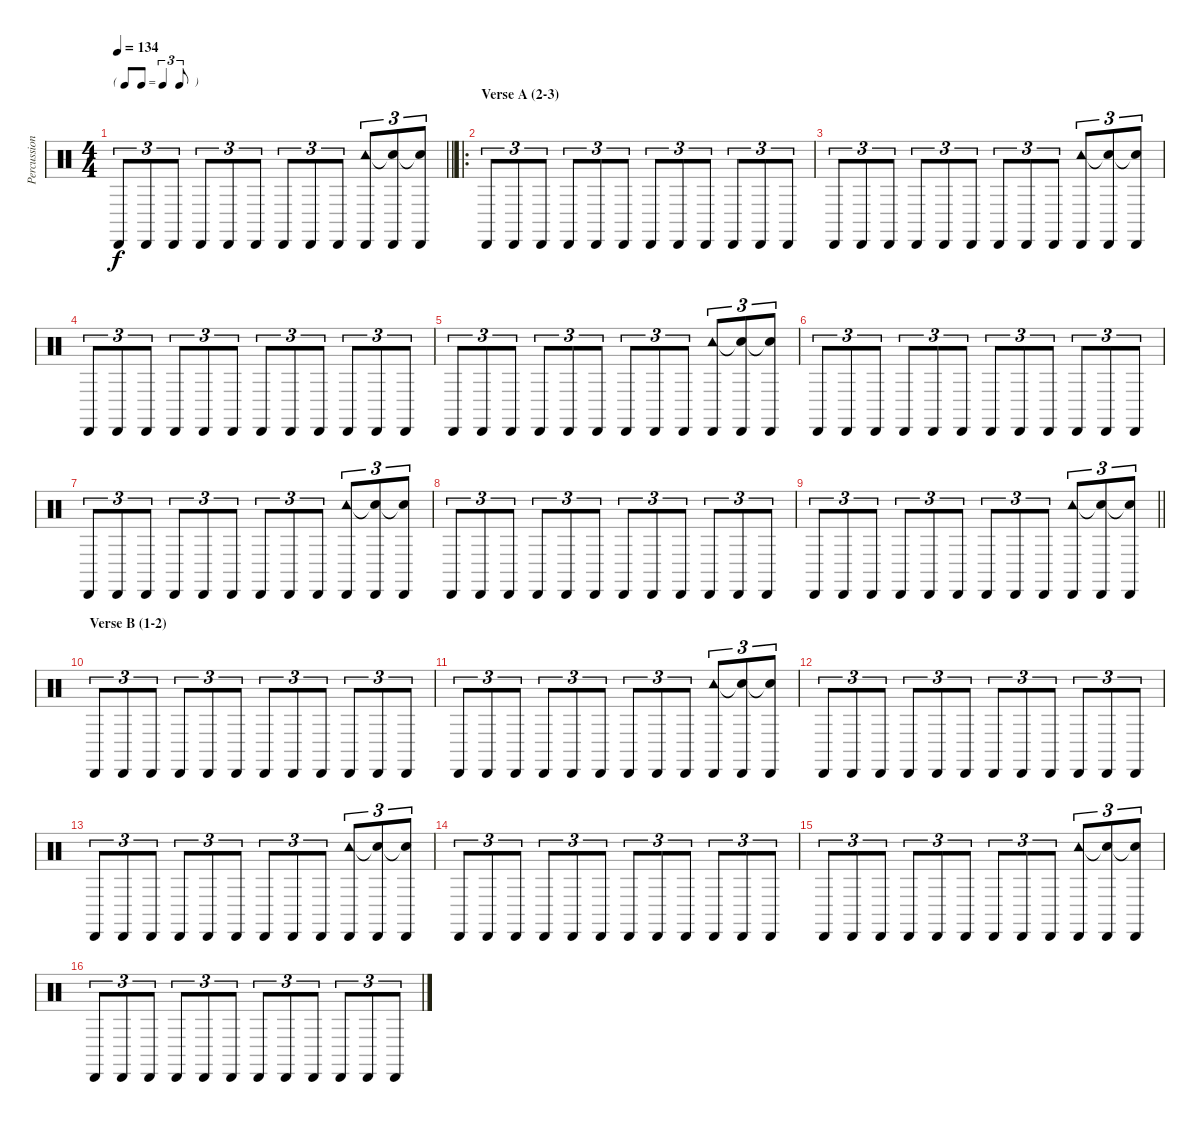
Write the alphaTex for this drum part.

\track ("Percussion" "Percussion") {instrument percussion}
\staff {score}
\articulation defaults
\ts (4 4)
\tf triplet8th
\tempo 134
\clef neutral
\barLineRight lightlight
\ks c "Cabasa (hit)".8{tu (3 2) dy f} "Cabasa (hit)".8{tu (3 2)} "Cabasa (hit)".8{tu (3 2)} "Cabasa (hit)".8{tu (3 2)} "Cabasa (hit)".8{tu (3 2)} "Cabasa (hit)".8{tu (3 2)} "Cabasa (hit)".8{tu (3 2)} "Cabasa (hit)".8{tu (3 2)} "Cabasa (hit)".8{tu (3 2)}
("Cabasa (hit)" "Tambourine (hit)").8{tu (3 2)} ("Cabasa (hit)" "Snare (hit)"{t}).8{tu (3 2)} ("Cabasa (hit)" "Snare (hit)"{t}).8{tu (3 2)} |
\ro
\section ("" "Verse A (2-3)")
"Cabasa (hit)".8{tu (3 2)} "Cabasa (hit)".8{tu (3 2)} "Cabasa (hit)".8{tu (3 2)} "Cabasa (hit)".8{tu (3 2)} "Cabasa (hit)".8{tu (3 2)} "Cabasa (hit)".8{tu (3 2)} "Cabasa (hit)".8{tu (3 2)} "Cabasa (hit)".8{tu (3 2)} "Cabasa (hit)".8{tu (3 2)} "Cabasa (hit)".8{tu (3 2)} "Cabasa (hit)".8{tu (3 2)} "Cabasa (hit)".8{tu (3 2)} |
"Cabasa (hit)".8{tu (3 2)} "Cabasa (hit)".8{tu (3 2)} "Cabasa (hit)".8{tu (3 2)} "Cabasa (hit)".8{tu (3 2)} "Cabasa (hit)".8{tu (3 2)} "Cabasa (hit)".8{tu (3 2)} "Cabasa (hit)".8{tu (3 2)} "Cabasa (hit)".8{tu (3 2)} "Cabasa (hit)".8{tu (3 2)} ("Cabasa (hit)" "Tambourine (hit)").8{tu (3 2)} ("Cabasa (hit)" "Snare (hit)"{t}).8{tu (3 2)} ("Cabasa (hit)" "Snare (hit)"{t}).8{tu (3 2)} |
"Cabasa (hit)".8{tu (3 2)} "Cabasa (hit)".8{tu (3 2)} "Cabasa (hit)".8{tu (3 2)} "Cabasa (hit)".8{tu (3 2)} "Cabasa (hit)".8{tu (3 2)} "Cabasa (hit)".8{tu (3 2)} "Cabasa (hit)".8{tu (3 2)} "Cabasa (hit)".8{tu (3 2)} "Cabasa (hit)".8{tu (3 2)} "Cabasa (hit)".8{tu (3 2)} "Cabasa (hit)".8{tu (3 2)} "Cabasa (hit)".8{tu (3 2)} |
"Cabasa (hit)".8{tu (3 2)} "Cabasa (hit)".8{tu (3 2)} "Cabasa (hit)".8{tu (3 2)} "Cabasa (hit)".8{tu (3 2)} "Cabasa (hit)".8{tu (3 2)} "Cabasa (hit)".8{tu (3 2)} "Cabasa (hit)".8{tu (3 2)} "Cabasa (hit)".8{tu (3 2)} "Cabasa (hit)".8{tu (3 2)} ("Cabasa (hit)" "Tambourine (hit)").8{tu (3 2)} ("Cabasa (hit)" "Snare (hit)"{t}).8{tu (3 2)} ("Cabasa (hit)" "Snare (hit)"{t}).8{tu (3 2)} |
"Cabasa (hit)".8{tu (3 2)} "Cabasa (hit)".8{tu (3 2)} "Cabasa (hit)".8{tu (3 2)} "Cabasa (hit)".8{tu (3 2)} "Cabasa (hit)".8{tu (3 2)} "Cabasa (hit)".8{tu (3 2)} "Cabasa (hit)".8{tu (3 2)} "Cabasa (hit)".8{tu (3 2)} "Cabasa (hit)".8{tu (3 2)} "Cabasa (hit)".8{tu (3 2)} "Cabasa (hit)".8{tu (3 2)} "Cabasa (hit)".8{tu (3 2)} |
"Cabasa (hit)".8{tu (3 2)} "Cabasa (hit)".8{tu (3 2)} "Cabasa (hit)".8{tu (3 2)} "Cabasa (hit)".8{tu (3 2)} "Cabasa (hit)".8{tu (3 2)} "Cabasa (hit)".8{tu (3 2)} "Cabasa (hit)".8{tu (3 2)} "Cabasa (hit)".8{tu (3 2)} "Cabasa (hit)".8{tu (3 2)} ("Cabasa (hit)" "Tambourine (hit)").8{tu (3 2)} ("Cabasa (hit)" "Snare (hit)"{t}).8{tu (3 2)} ("Cabasa (hit)" "Snare (hit)"{t}).8{tu (3 2)} |
"Cabasa (hit)".8{tu (3 2)} "Cabasa (hit)".8{tu (3 2)} "Cabasa (hit)".8{tu (3 2)} "Cabasa (hit)".8{tu (3 2)} "Cabasa (hit)".8{tu (3 2)} "Cabasa (hit)".8{tu (3 2)} "Cabasa (hit)".8{tu (3 2)} "Cabasa (hit)".8{tu (3 2)} "Cabasa (hit)".8{tu (3 2)} "Cabasa (hit)".8{tu (3 2)} "Cabasa (hit)".8{tu (3 2)} "Cabasa (hit)".8{tu (3 2)} |
\barLineRight lightlight "Cabasa (hit)".8{tu (3 2)} "Cabasa (hit)".8{tu (3 2)} "Cabasa (hit)".8{tu (3 2)} "Cabasa (hit)".8{tu (3 2)} "Cabasa (hit)".8{tu (3 2)} "Cabasa (hit)".8{tu (3 2)} "Cabasa (hit)".8{tu (3 2)} "Cabasa (hit)".8{tu (3 2)} "Cabasa (hit)".8{tu (3 2)}
("Cabasa (hit)" "Tambourine (hit)").8{tu (3 2)} ("Cabasa (hit)" "Snare (hit)"{t}).8{tu (3 2)} ("Cabasa (hit)" "Snare (hit)"{t}).8{tu (3 2)} |
\section ("" "Verse B (1-2)")
"Cabasa (hit)".8{tu (3 2)} "Cabasa (hit)".8{tu (3 2)} "Cabasa (hit)".8{tu (3 2)} "Cabasa (hit)".8{tu (3 2)} "Cabasa (hit)".8{tu (3 2)} "Cabasa (hit)".8{tu (3 2)} "Cabasa (hit)".8{tu (3 2)} "Cabasa (hit)".8{tu (3 2)} "Cabasa (hit)".8{tu (3 2)} "Cabasa (hit)".8{tu (3 2)} "Cabasa (hit)".8{tu (3 2)} "Cabasa (hit)".8{tu (3 2)} |
"Cabasa (hit)".8{tu (3 2)} "Cabasa (hit)".8{tu (3 2)} "Cabasa (hit)".8{tu (3 2)} "Cabasa (hit)".8{tu (3 2)} "Cabasa (hit)".8{tu (3 2)} "Cabasa (hit)".8{tu (3 2)} "Cabasa (hit)".8{tu (3 2)} "Cabasa (hit)".8{tu (3 2)} "Cabasa (hit)".8{tu (3 2)} ("Cabasa (hit)" "Tambourine (hit)").8{tu (3 2)} ("Cabasa (hit)" "Snare (hit)"{t}).8{tu (3 2)} ("Cabasa (hit)" "Snare (hit)"{t}).8{tu (3 2)} |
"Cabasa (hit)".8{tu (3 2)} "Cabasa (hit)".8{tu (3 2)} "Cabasa (hit)".8{tu (3 2)} "Cabasa (hit)".8{tu (3 2)} "Cabasa (hit)".8{tu (3 2)} "Cabasa (hit)".8{tu (3 2)} "Cabasa (hit)".8{tu (3 2)} "Cabasa (hit)".8{tu (3 2)} "Cabasa (hit)".8{tu (3 2)} "Cabasa (hit)".8{tu (3 2)} "Cabasa (hit)".8{tu (3 2)} "Cabasa (hit)".8{tu (3 2)} |
"Cabasa (hit)".8{tu (3 2)} "Cabasa (hit)".8{tu (3 2)} "Cabasa (hit)".8{tu (3 2)} "Cabasa (hit)".8{tu (3 2)} "Cabasa (hit)".8{tu (3 2)} "Cabasa (hit)".8{tu (3 2)} "Cabasa (hit)".8{tu (3 2)} "Cabasa (hit)".8{tu (3 2)} "Cabasa (hit)".8{tu (3 2)} ("Cabasa (hit)" "Tambourine (hit)").8{tu (3 2)} ("Cabasa (hit)" "Snare (hit)"{t}).8{tu (3 2)} ("Cabasa (hit)" "Snare (hit)"{t}).8{tu (3 2)} |
"Cabasa (hit)".8{tu (3 2)} "Cabasa (hit)".8{tu (3 2)} "Cabasa (hit)".8{tu (3 2)} "Cabasa (hit)".8{tu (3 2)} "Cabasa (hit)".8{tu (3 2)} "Cabasa (hit)".8{tu (3 2)} "Cabasa (hit)".8{tu (3 2)} "Cabasa (hit)".8{tu (3 2)} "Cabasa (hit)".8{tu (3 2)} "Cabasa (hit)".8{tu (3 2)} "Cabasa (hit)".8{tu (3 2)} "Cabasa (hit)".8{tu (3 2)} |
"Cabasa (hit)".8{tu (3 2)} "Cabasa (hit)".8{tu (3 2)} "Cabasa (hit)".8{tu (3 2)} "Cabasa (hit)".8{tu (3 2)} "Cabasa (hit)".8{tu (3 2)} "Cabasa (hit)".8{tu (3 2)} "Cabasa (hit)".8{tu (3 2)} "Cabasa (hit)".8{tu (3 2)} "Cabasa (hit)".8{tu (3 2)} ("Cabasa (hit)" "Tambourine (hit)").8{tu (3 2)} ("Cabasa (hit)" "Snare (hit)"{t}).8{tu (3 2)} ("Cabasa (hit)" "Snare (hit)"{t}).8{tu (3 2)} |
"Cabasa (hit)".8{tu (3 2)} "Cabasa (hit)".8{tu (3 2)} "Cabasa (hit)".8{tu (3 2)} "Cabasa (hit)".8{tu (3 2)} "Cabasa (hit)".8{tu (3 2)} "Cabasa (hit)".8{tu (3 2)} "Cabasa (hit)".8{tu (3 2)} "Cabasa (hit)".8{tu (3 2)} "Cabasa (hit)".8{tu (3 2)} "Cabasa (hit)".8{tu (3 2)} "Cabasa (hit)".8{tu (3 2)} "Cabasa (hit)".8{tu (3 2)}
